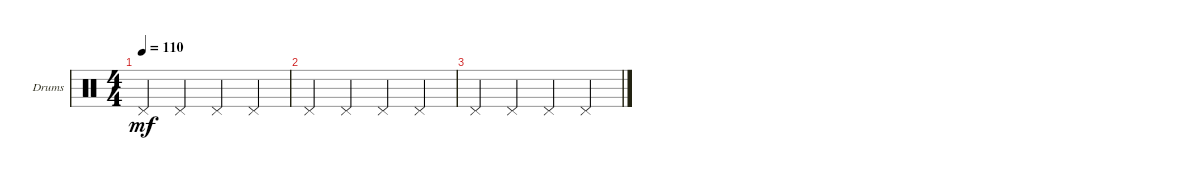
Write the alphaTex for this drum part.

\defaultSystemsLayout 4
\bracketExtendMode groupsimilarinstruments
\firstSystemTrackNameOrientation horizontal
\otherSystemsTrackNameOrientation horizontal
\track ("Drumkit" "Drums") {instrument percussion}
\staff {score}
\articulation defaults
\ts (4 4)
\tempo 110
\clef neutral
\ks c "Pedal Hi-Hat (hit)".4{dy mf} "Pedal Hi-Hat (hit)".4 "Pedal Hi-Hat (hit)".4 "Pedal Hi-Hat (hit)".4
|
"Pedal Hi-Hat (hit)".4 "Pedal Hi-Hat (hit)".4 "Pedal Hi-Hat (hit)".4 "Pedal Hi-Hat (hit)".4 |
"Pedal Hi-Hat (hit)".4 "Pedal Hi-Hat (hit)".4 "Pedal Hi-Hat (hit)".4 "Pedal Hi-Hat (hit)".4
